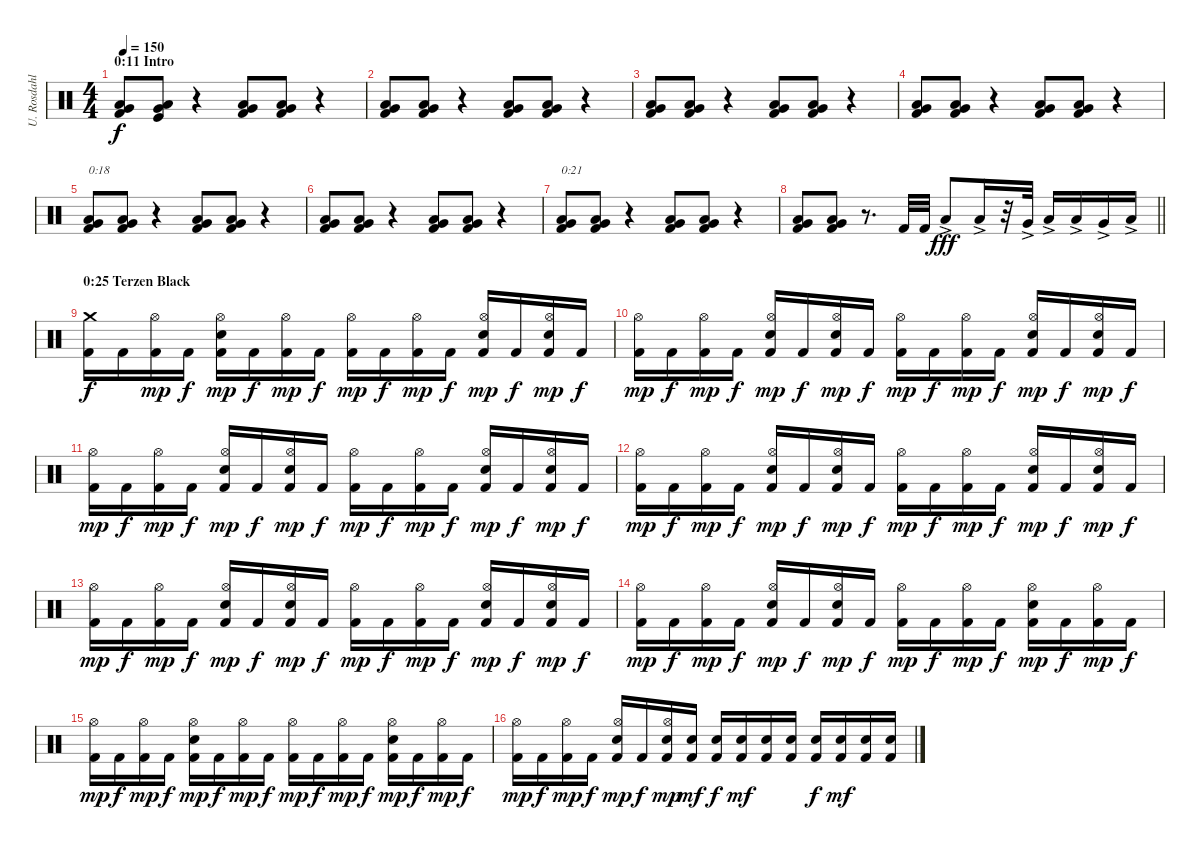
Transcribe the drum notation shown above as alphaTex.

\track ("U. Rosdahl" "U. Rosdahl") {instrument percussion}
\staff {score}
\articulation defaults
\ts (4 4)
\section ("" "0:11 Intro")
\tempo 150
\clef neutral
\ks c
("Kick (hit) 2" "Very Low Tom (hit)" "Low Tom (hit)").8{dy f} ("Kick (hit)" "Very Low Tom (hit)" "Low Tom (hit)").8 r.4 ("Kick (hit) 2" "Very Low Tom (hit)" "Low Tom (hit)").8 ("Kick (hit) 2" "Very Low Tom (hit)" "Low Tom (hit)").8 r.4 |
("Kick (hit) 2" "Very Low Tom (hit)" "Low Tom (hit)").8 ("Kick (hit) 2" "Very Low Tom (hit)" "Low Tom (hit)").8 r.4 ("Kick (hit) 2" "Very Low Tom (hit)" "Low Tom (hit)").8 ("Kick (hit) 2" "Very Low Tom (hit)" "Low Tom (hit)").8 r.4 |
("Kick (hit) 2" "Very Low Tom (hit)" "Low Tom (hit)").8 ("Kick (hit) 2" "Very Low Tom (hit)" "Low Tom (hit)").8 r.4 ("Kick (hit) 2" "Very Low Tom (hit)" "Low Tom (hit)").8 ("Kick (hit) 2" "Very Low Tom (hit)" "Low Tom (hit)").8 r.4 |
("Kick (hit) 2" "Very Low Tom (hit)" "Low Tom (hit)").8 ("Kick (hit) 2" "Very Low Tom (hit)" "Low Tom (hit)").8 r.4 ("Kick (hit) 2" "Very Low Tom (hit)" "Low Tom (hit)").8 ("Kick (hit) 2" "Very Low Tom (hit)" "Low Tom (hit)").8 r.4 |
("Kick (hit) 2" "Very Low Tom (hit)" "Low Tom (hit)").8{txt "0:18"} ("Kick (hit) 2" "Very Low Tom (hit)" "Low Tom (hit)").8 r.4 ("Kick (hit) 2" "Very Low Tom (hit)" "Low Tom (hit)").8 ("Kick (hit) 2" "Very Low Tom (hit)" "Low Tom (hit)").8 r.4 |
("Kick (hit) 2" "Very Low Tom (hit)" "Low Tom (hit)").8 ("Kick (hit) 2" "Very Low Tom (hit)" "Low Tom (hit)").8 r.4 ("Kick (hit) 2" "Very Low Tom (hit)" "Low Tom (hit)").8 ("Kick (hit) 2" "Very Low Tom (hit)" "Low Tom (hit)").8 r.4 |
("Kick (hit) 2" "Very Low Tom (hit)" "Low Tom (hit)").8{txt "0:21"} ("Kick (hit) 2" "Very Low Tom (hit)" "Low Tom (hit)").8 r.4 ("Kick (hit) 2" "Very Low Tom (hit)" "Low Tom (hit)").8 ("Kick (hit) 2" "Very Low Tom (hit)" "Low Tom (hit)").8 r.4 |
\barLineRight lightlight
("Kick (hit) 2" "Very Low Tom (hit)" "Low Tom (hit)").8 ("Kick (hit) 2" "Very Low Tom (hit)" "Low Tom (hit)").8 r.8{d} "Kick (hit) 2".32 "Kick (hit) 2".32 "Low Tom (hit)"{ac}.8{dy fff} "Low Tom (hit)"{ac}.16 r.32 "Very Low Tom (hit)"{ac}.32 "Low Tom (hit)"{ac}.16 "Low Tom (hit)"{ac}.16 "Very Low Tom (hit)"{ac}.16 "Low Floor Tom (hit)"{ac}.16 |
\section ("" "0:25 Terzen Black")
("Kick (hit) 2" "Crash medium (hit)").16{dy f} "Kick (hit) 2".16 ("Kick (hit) 2" "Hi-Hat (open)").16{dy mp} "Kick (hit) 2".16{dy f} ("Kick (hit) 2" "Electric Snare (hit)" "Hi-Hat (open)").16{dy mp} "Kick (hit) 2".16{dy f} ("Kick (hit) 2" "Hi-Hat (open)").16{dy mp} "Kick (hit) 2".16{dy f} ("Kick (hit) 2" "Hi-Hat (open)").16{dy mp} "Kick (hit) 2".16{dy f} ("Kick (hit) 2" "Hi-Hat (open)").16{dy mp} "Kick (hit) 2".16{dy f} ("Kick (hit) 2" "Electric Snare (hit)" "Hi-Hat (open)").16{dy mp} "Kick (hit) 2".16{dy f} ("Kick (hit) 2" "Electric Snare (hit)" "Hi-Hat (open)").16{dy mp} "Kick (hit) 2".16{dy f} |
("Kick (hit) 2" "Hi-Hat (open)").16{dy mp} "Kick (hit) 2".16{dy f} ("Kick (hit) 2" "Hi-Hat (open)").16{dy mp} "Kick (hit) 2".16{dy f} ("Kick (hit) 2" "Electric Snare (hit)" "Hi-Hat (open)").16{dy mp} "Kick (hit) 2".16{dy f} ("Kick (hit) 2" "Electric Snare (hit)" "Hi-Hat (open)").16{dy mp} "Kick (hit) 2".16{dy f} ("Kick (hit) 2" "Hi-Hat (open)").16{dy mp} "Kick (hit) 2".16{dy f} ("Kick (hit) 2" "Hi-Hat (open)").16{dy mp} "Kick (hit) 2".16{dy f} ("Kick (hit) 2" "Electric Snare (hit)" "Hi-Hat (open)").16{dy mp} "Kick (hit) 2".16{dy f} ("Kick (hit) 2" "Electric Snare (hit)" "Hi-Hat (open)").16{dy mp} "Kick (hit) 2".16{dy f} |
("Kick (hit) 2" "Hi-Hat (open)").16{dy mp} "Kick (hit) 2".16{dy f} ("Kick (hit) 2" "Hi-Hat (open)").16{dy mp} "Kick (hit) 2".16{dy f} ("Kick (hit) 2" "Electric Snare (hit)" "Hi-Hat (open)").16{dy mp} "Kick (hit) 2".16{dy f} ("Kick (hit) 2" "Electric Snare (hit)" "Hi-Hat (open)").16{dy mp} "Kick (hit) 2".16{dy f} ("Kick (hit) 2" "Hi-Hat (open)").16{dy mp} "Kick (hit) 2".16{dy f} ("Kick (hit) 2" "Hi-Hat (open)").16{dy mp} "Kick (hit) 2".16{dy f} ("Kick (hit) 2" "Electric Snare (hit)" "Hi-Hat (open)").16{dy mp} "Kick (hit) 2".16{dy f} ("Kick (hit) 2" "Electric Snare (hit)" "Hi-Hat (open)").16{dy mp} "Kick (hit) 2".16{dy f} |
("Kick (hit) 2" "Hi-Hat (open)").16{dy mp} "Kick (hit) 2".16{dy f} ("Kick (hit) 2" "Hi-Hat (open)").16{dy mp} "Kick (hit) 2".16{dy f} ("Kick (hit) 2" "Electric Snare (hit)" "Hi-Hat (open)").16{dy mp} "Kick (hit) 2".16{dy f} ("Kick (hit) 2" "Electric Snare (hit)" "Hi-Hat (open)").16{dy mp} "Kick (hit) 2".16{dy f} ("Kick (hit) 2" "Hi-Hat (open)").16{dy mp} "Kick (hit) 2".16{dy f} ("Kick (hit) 2" "Hi-Hat (open)").16{dy mp} "Kick (hit) 2".16{dy f} ("Kick (hit) 2" "Electric Snare (hit)" "Hi-Hat (open)").16{dy mp} "Kick (hit) 2".16{dy f} ("Kick (hit) 2" "Electric Snare (hit)" "Hi-Hat (open)").16{dy mp} "Kick (hit) 2".16{dy f} |
("Kick (hit) 2" "Hi-Hat (open)").16{dy mp} "Kick (hit) 2".16{dy f} ("Kick (hit) 2" "Hi-Hat (open)").16{dy mp} "Kick (hit) 2".16{dy f} ("Kick (hit) 2" "Electric Snare (hit)" "Hi-Hat (open)").16{dy mp} "Kick (hit) 2".16{dy f} ("Kick (hit) 2" "Electric Snare (hit)" "Hi-Hat (open)").16{dy mp} "Kick (hit) 2".16{dy f} ("Kick (hit) 2" "Hi-Hat (open)").16{dy mp} "Kick (hit) 2".16{dy f} ("Kick (hit) 2" "Hi-Hat (open)").16{dy mp} "Kick (hit) 2".16{dy f} ("Kick (hit) 2" "Electric Snare (hit)" "Hi-Hat (open)").16{dy mp} "Kick (hit) 2".16{dy f} ("Kick (hit) 2" "Electric Snare (hit)" "Hi-Hat (open)").16{dy mp} "Kick (hit) 2".16{dy f} |
("Kick (hit) 2" "Hi-Hat (open)").16{dy mp} "Kick (hit) 2".16{dy f} ("Kick (hit) 2" "Hi-Hat (open)").16{dy mp} "Kick (hit) 2".16{dy f} ("Kick (hit) 2" "Electric Snare (hit)" "Hi-Hat (open)").16{dy mp} "Kick (hit) 2".16{dy f} ("Kick (hit) 2" "Electric Snare (hit)" "Hi-Hat (open)").16{dy mp} "Kick (hit) 2".16{dy f} ("Kick (hit) 2" "Hi-Hat (open)").16{dy mp} "Kick (hit) 2".16{dy f} ("Kick (hit) 2" "Hi-Hat (open)").16{dy mp} "Kick (hit) 2".16{dy f} ("Kick (hit) 2" "Electric Snare (hit)" "Hi-Hat (open)").16{dy mp} "Kick (hit) 2".16{dy f} ("Kick (hit) 2" "Hi-Hat (open)").16{dy mp} "Kick (hit) 2".16{dy f} |
("Kick (hit) 2" "Hi-Hat (open)").16{dy mp} "Kick (hit) 2".16{dy f} ("Kick (hit) 2" "Hi-Hat (open)").16{dy mp} "Kick (hit) 2".16{dy f} ("Kick (hit) 2" "Electric Snare (hit)" "Hi-Hat (open)").16{dy mp} "Kick (hit) 2".16{dy f} ("Kick (hit) 2" "Hi-Hat (open)").16{dy mp} "Kick (hit) 2".16{dy f} ("Kick (hit) 2" "Hi-Hat (open)").16{dy mp} "Kick (hit) 2".16{dy f} ("Kick (hit) 2" "Hi-Hat (open)").16{dy mp} "Kick (hit) 2".16{dy f} ("Kick (hit) 2" "Electric Snare (hit)" "Hi-Hat (open)").16{dy mp} "Kick (hit) 2".16{dy f} ("Kick (hit) 2" "Hi-Hat (open)").16{dy mp} "Kick (hit) 2".16{dy f} |
("Kick (hit) 2" "Hi-Hat (open)").16{dy mp} "Kick (hit) 2".16{dy f} ("Kick (hit) 2" "Hi-Hat (open)").16{dy mp} "Kick (hit) 2".16{dy f} ("Kick (hit) 2" "Electric Snare (hit)" "Hi-Hat (open)").16{dy mp} "Kick (hit) 2".16{dy f} ("Kick (hit) 2" "Electric Snare (hit)" "Hi-Hat (open)").16{dy mp} ("Kick (hit) 2" "Electric Snare (hit)").16{dy mf} ("Kick (hit) 2" "Electric Snare (hit)").16{dy f} ("Kick (hit) 2" "Electric Snare (hit)").16{dy mf} ("Kick (hit) 2" "Electric Snare (hit)").16 ("Kick (hit) 2" "Electric Snare (hit)").16 ("Kick (hit) 2" "Electric Snare (hit)").16{dy f} ("Kick (hit) 2" "Electric Snare (hit)").16{dy mf} ("Kick (hit) 2" "Electric Snare (hit)").16 ("Kick (hit) 2" "Electric Snare (hit)").16
